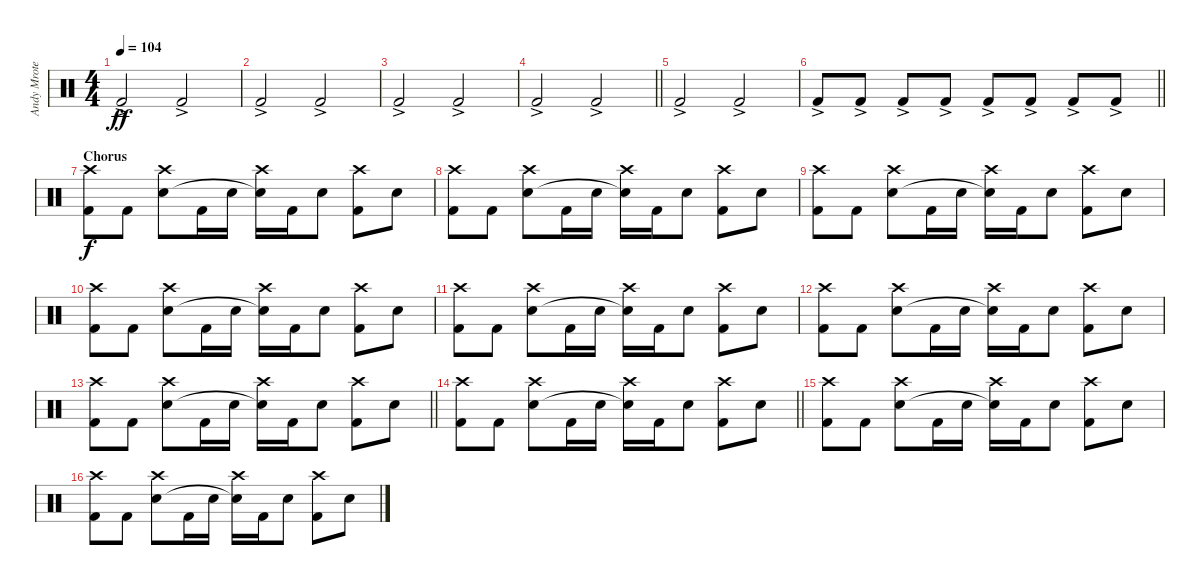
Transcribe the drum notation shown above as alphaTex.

\track ("Andy Mrotek (Percussion)" "Andy Mrote") {instrument percussion}
\staff {score}
\articulation defaults
\ts (4 4)
\tempo 104
\clef neutral
\ks c "Kick (hit) 2"{ac}.2{dy ff} "Kick (hit) 2"{ac}.2
|
"Kick (hit) 2"{ac}.2 "Kick (hit) 2"{ac}.2 |
"Kick (hit) 2"{ac}.2 "Kick (hit) 2"{ac}.2 |
\barLineRight lightlight "Kick (hit) 2"{ac}.2 "Kick (hit) 2"{ac}.2
|
"Kick (hit) 2"{ac}.2 "Kick (hit) 2"{ac}.2 |
\barLineRight lightlight "Kick (hit) 2"{ac}.8 "Kick (hit) 2"{ac}.8 "Kick (hit) 2"{ac}.8 "Kick (hit) 2"{ac}.8 "Kick (hit) 2"{ac}.8 "Kick (hit) 2"{ac}.8 "Kick (hit) 2"{ac}.8 "Kick (hit) 2"{ac}.8
|
\section ("" "Chorus")
("Crash high (hit)" "Kick (hit) 2").8{dy f} "Kick (hit) 2".8 ("Crash high (hit)" "Snare (hit) 2").8 "Kick (hit) 2".16 "Snare (hit) 2".16 ("Crash high (hit)" "Snare (hit) 2"{t}).16 "Kick (hit) 2".16 "Snare (hit) 2".8 ("Crash high (hit)" "Kick (hit) 2").8 "Snare (hit) 2".8 |
("Crash high (hit)" "Kick (hit) 2").8 "Kick (hit) 2".8 ("Crash high (hit)" "Snare (hit) 2").8 "Kick (hit) 2".16 "Snare (hit) 2".16 ("Crash high (hit)" "Snare (hit) 2"{t}).16 "Kick (hit) 2".16 "Snare (hit) 2".8 ("Crash high (hit)" "Kick (hit) 2").8 "Snare (hit) 2".8 |
("Crash high (hit)" "Kick (hit) 2").8 "Kick (hit) 2".8 ("Crash high (hit)" "Snare (hit) 2").8 "Kick (hit) 2".16 "Snare (hit) 2".16 ("Crash high (hit)" "Snare (hit) 2"{t}).16 "Kick (hit) 2".16 "Snare (hit) 2".8 ("Crash high (hit)" "Kick (hit) 2").8 "Snare (hit) 2".8 |
("Crash high (hit)" "Kick (hit) 2").8 "Kick (hit) 2".8 ("Crash high (hit)" "Snare (hit) 2").8 "Kick (hit) 2".16 "Snare (hit) 2".16 ("Crash high (hit)" "Snare (hit) 2"{t}).16 "Kick (hit) 2".16 "Snare (hit) 2".8 ("Crash high (hit)" "Kick (hit) 2").8 "Snare (hit) 2".8 |
("Crash high (hit)" "Kick (hit) 2").8 "Kick (hit) 2".8 ("Crash high (hit)" "Snare (hit) 2").8 "Kick (hit) 2".16 "Snare (hit) 2".16 ("Crash high (hit)" "Snare (hit) 2"{t}).16 "Kick (hit) 2".16 "Snare (hit) 2".8 ("Crash high (hit)" "Kick (hit) 2").8 "Snare (hit) 2".8 |
("Crash high (hit)" "Kick (hit) 2").8 "Kick (hit) 2".8 ("Crash high (hit)" "Snare (hit) 2").8 "Kick (hit) 2".16 "Snare (hit) 2".16 ("Crash high (hit)" "Snare (hit) 2"{t}).16 "Kick (hit) 2".16 "Snare (hit) 2".8 ("Crash high (hit)" "Kick (hit) 2").8 "Snare (hit) 2".8 |
\barLineRight lightlight
("Crash high (hit)" "Kick (hit) 2").8 "Kick (hit) 2".8 ("Crash high (hit)" "Snare (hit) 2").8 "Kick (hit) 2".16 "Snare (hit) 2".16 ("Crash high (hit)" "Snare (hit) 2"{t}).16 "Kick (hit) 2".16 "Snare (hit) 2".8 ("Crash high (hit)" "Kick (hit) 2").8 "Snare (hit) 2".8 |
\barLineRight lightlight
("Crash high (hit)" "Kick (hit) 2").8 "Kick (hit) 2".8 ("Crash high (hit)" "Snare (hit) 2").8 "Kick (hit) 2".16 "Snare (hit) 2".16 ("Crash high (hit)" "Snare (hit) 2"{t}).16 "Kick (hit) 2".16 "Snare (hit) 2".8 ("Crash high (hit)" "Kick (hit) 2").8 "Snare (hit) 2".8 |
("Crash high (hit)" "Kick (hit) 2").8 "Kick (hit) 2".8 ("Crash high (hit)" "Snare (hit) 2").8 "Kick (hit) 2".16 "Snare (hit) 2".16 ("Crash high (hit)" "Snare (hit) 2"{t}).16 "Kick (hit) 2".16 "Snare (hit) 2".8 ("Crash high (hit)" "Kick (hit) 2").8 "Snare (hit) 2".8 |
("Crash high (hit)" "Kick (hit) 2").8 "Kick (hit) 2".8 ("Crash high (hit)" "Snare (hit) 2").8 "Kick (hit) 2".16 "Snare (hit) 2".16 ("Crash high (hit)" "Snare (hit) 2"{t}).16 "Kick (hit) 2".16 "Snare (hit) 2".8 ("Crash high (hit)" "Kick (hit) 2").8 "Snare (hit) 2".8
